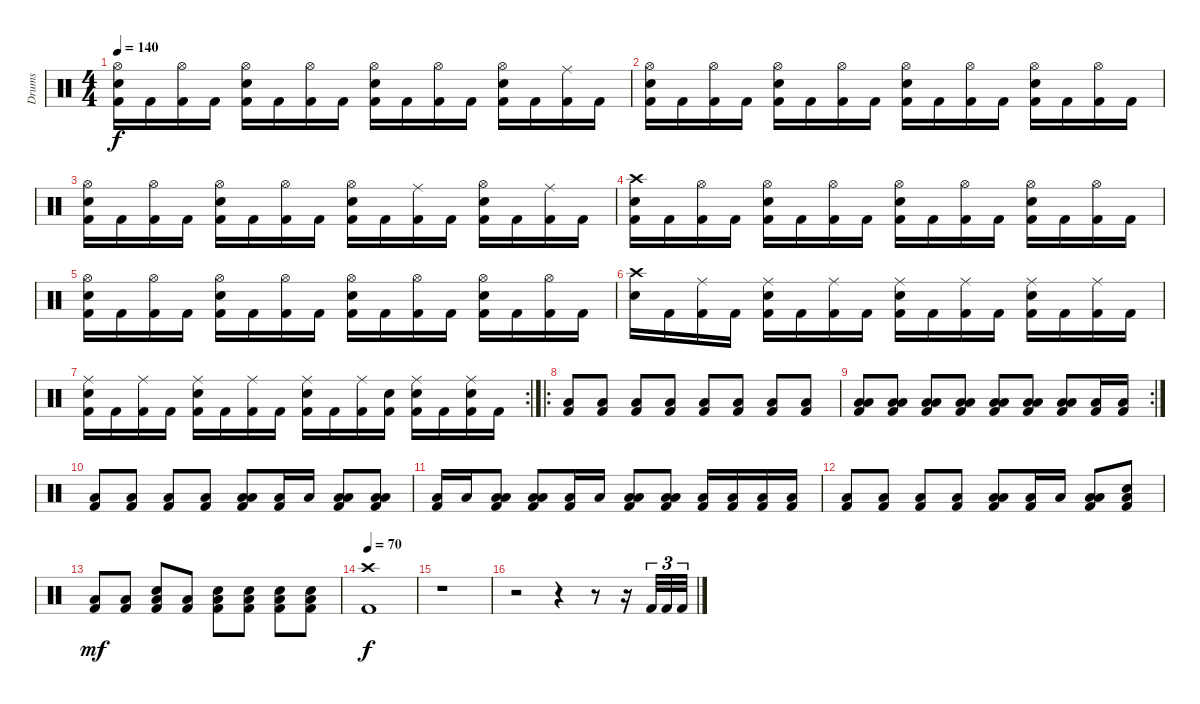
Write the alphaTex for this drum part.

\track ("Drums" "Drums") {instrument percussion}
\staff {score}
\articulation defaults
\ts (4 4)
\tempo 140
\clef neutral
\ks c
("Hi-Hat (open)" "Snare (hit) 2" "Kick (hit) 2").16{dy f} "Kick (hit) 2".16 ("Hi-Hat (open)" "Kick (hit) 2").16 "Kick (hit) 2".16 ("Hi-Hat (open)" "Snare (hit) 2" "Kick (hit) 2").16 "Kick (hit) 2".16 ("Hi-Hat (open)" "Kick (hit) 2").16 "Kick (hit) 2".16 ("Hi-Hat (open)" "Snare (hit) 2" "Kick (hit) 2").16 "Kick (hit) 2".16 ("Hi-Hat (open)" "Kick (hit) 2").16 "Kick (hit) 2".16 ("Hi-Hat (open)" "Snare (hit) 2" "Kick (hit) 2").16 "Kick (hit) 2".16 ("Ride (middle)" "Kick (hit) 2").16 "Kick (hit) 2".16 |
("Hi-Hat (open)" "Snare (hit) 2" "Kick (hit) 2").16 "Kick (hit) 2".16 ("Hi-Hat (open)" "Kick (hit) 2").16 "Kick (hit) 2".16 ("Hi-Hat (open)" "Snare (hit) 2" "Kick (hit) 2").16 "Kick (hit) 2".16 ("Hi-Hat (open)" "Kick (hit) 2").16 "Kick (hit) 2".16 ("Hi-Hat (open)" "Snare (hit) 2" "Kick (hit) 2").16 "Kick (hit) 2".16 ("Hi-Hat (open)" "Kick (hit) 2").16 "Kick (hit) 2".16 ("Hi-Hat (open)" "Snare (hit) 2" "Kick (hit) 2").16 "Kick (hit) 2".16 ("Hi-Hat (open)" "Kick (hit) 2").16 "Kick (hit) 2".16 |
("Hi-Hat (open)" "Snare (hit) 2" "Kick (hit) 2").16 "Kick (hit) 2".16 ("Hi-Hat (open)" "Kick (hit) 2").16 "Kick (hit) 2".16 ("Hi-Hat (open)" "Snare (hit) 2" "Kick (hit) 2").16 "Kick (hit) 2".16 ("Hi-Hat (open)" "Kick (hit) 2").16 "Kick (hit) 2".16 ("Hi-Hat (open)" "Snare (hit) 2" "Kick (hit) 2").16 "Kick (hit) 2".16 ("Ride (middle)" "Kick (hit) 2").16 "Kick (hit) 2".16 ("Hi-Hat (open)" "Snare (hit) 2" "Kick (hit) 2").16 "Kick (hit) 2".16 ("Ride (middle)" "Kick (hit) 2").16 "Kick (hit) 2".16 |
("Crash high (hit)" "Snare (hit) 2" "Kick (hit) 2").16 "Kick (hit) 2".16 ("Hi-Hat (open)" "Kick (hit) 2").16 "Kick (hit) 2".16 ("Hi-Hat (open)" "Snare (hit) 2" "Kick (hit) 2").16 "Kick (hit) 2".16 ("Hi-Hat (open)" "Kick (hit) 2").16 "Kick (hit) 2".16 ("Hi-Hat (open)" "Snare (hit) 2" "Kick (hit) 2").16 "Kick (hit) 2".16 ("Hi-Hat (open)" "Kick (hit) 2").16 "Kick (hit) 2".16 ("Hi-Hat (open)" "Snare (hit) 2" "Kick (hit) 2").16 "Kick (hit) 2".16 ("Hi-Hat (open)" "Kick (hit) 2").16 "Kick (hit) 2".16 |
("Hi-Hat (open)" "Snare (hit) 2" "Kick (hit) 2").16 "Kick (hit) 2".16 ("Hi-Hat (open)" "Kick (hit) 2").16 "Kick (hit) 2".16 ("Hi-Hat (open)" "Snare (hit) 2" "Kick (hit) 2").16 "Kick (hit) 2".16 ("Hi-Hat (open)" "Kick (hit) 2").16 "Kick (hit) 2".16 ("Hi-Hat (open)" "Snare (hit) 2" "Kick (hit) 2").16 "Kick (hit) 2".16 ("Hi-Hat (open)" "Kick (hit) 2").16 "Kick (hit) 2".16 ("Hi-Hat (open)" "Snare (hit) 2" "Kick (hit) 2").16 "Kick (hit) 2".16 ("Hi-Hat (open)" "Kick (hit) 2").16 "Kick (hit) 2".16 |
("Crash high (hit)" "Snare (hit) 2").16 "Kick (hit) 2".16 ("Ride (middle)" "Kick (hit) 2").16 "Kick (hit) 2".16 ("Ride (middle)" "Snare (hit) 2" "Kick (hit) 2").16 "Kick (hit) 2".16 ("Ride (middle)" "Kick (hit) 2").16 "Kick (hit) 2".16 ("Ride (middle)" "Snare (hit) 2" "Kick (hit) 2").16 "Kick (hit) 2".16 ("Ride (middle)" "Kick (hit) 2").16 "Kick (hit) 2".16 ("Ride (middle)" "Snare (hit) 2" "Kick (hit) 2").16 "Kick (hit) 2".16 ("Ride (middle)" "Kick (hit) 2").16 "Kick (hit) 2".16 |
\rc 2
("Ride (middle)" "Snare (hit) 2" "Kick (hit) 2").16 "Kick (hit) 2".16 ("Ride (middle)" "Kick (hit) 2").16 "Kick (hit) 2".16 ("Ride (middle)" "Snare (hit) 2" "Kick (hit) 2").16 "Kick (hit) 2".16 ("Ride (middle)" "Kick (hit) 2").16 "Kick (hit) 2".16 ("Ride (middle)" "Snare (hit) 2" "Kick (hit) 2").16 "Kick (hit) 2".16 ("Ride (middle)" "Kick (hit) 2").16 ("Snare (hit) 2" "Kick (hit) 2").16 ("Ride (middle)" "Snare (hit) 2" "Kick (hit) 2").16 "Kick (hit) 2".16 ("Ride (middle)" "Snare (hit) 2" "Kick (hit) 2").16 "Kick (hit) 2".16 |
\ro
("Low Floor Tom (hit)" "Kick (hit) 2").8 ("Low Floor Tom (hit)" "Kick (hit) 2").8 ("Low Floor Tom (hit)" "Kick (hit) 2").8 ("Low Floor Tom (hit)" "Kick (hit) 2").8 ("Low Floor Tom (hit)" "Kick (hit) 2").8 ("Low Floor Tom (hit)" "Kick (hit) 2").8 ("Low Floor Tom (hit)" "Kick (hit) 2").8 ("Low Floor Tom (hit)" "Kick (hit) 2").8 |
\rc 2
("Low Tom (hit)" "Low Floor Tom (hit)" "Kick (hit) 2").8 ("Low Tom (hit)" "Low Floor Tom (hit)" "Kick (hit) 2").8 ("Low Tom (hit)" "Low Floor Tom (hit)" "Kick (hit) 2").8 ("Low Tom (hit)" "Low Floor Tom (hit)" "Kick (hit) 2").8 ("Low Tom (hit)" "Low Floor Tom (hit)" "Kick (hit) 2").8 ("Low Tom (hit)" "Low Floor Tom (hit)" "Kick (hit) 2").8 ("Low Tom (hit)" "Low Floor Tom (hit)" "Kick (hit) 2").8 ("Low Tom (hit)" "Kick (hit) 2").16 ("Low Tom (hit)" "Kick (hit) 2").16 |
("Low Floor Tom (hit)" "Kick (hit) 2").8 ("Low Floor Tom (hit)" "Kick (hit) 2").8 ("Low Floor Tom (hit)" "Kick (hit) 2").8 ("Low Floor Tom (hit)" "Kick (hit) 2").8 ("Low Tom (hit)" "Low Floor Tom (hit)" "Kick (hit) 2").8 ("Low Tom (hit)" "Kick (hit) 2").16 "Low Tom (hit)".16 ("Low Tom (hit)" "Low Floor Tom (hit)" "Kick (hit) 2").8 ("Low Tom (hit)" "Low Floor Tom (hit)" "Kick (hit) 2").8 |
("Low Tom (hit)" "Kick (hit) 2").16 "Low Tom (hit)".16 ("Low Tom (hit)" "Low Floor Tom (hit)" "Kick (hit) 2").8 ("Low Tom (hit)" "Low Floor Tom (hit)" "Kick (hit) 2").8 ("Low Tom (hit)" "Kick (hit) 2").16 "Low Tom (hit)".16 ("Low Tom (hit)" "Low Floor Tom (hit)" "Kick (hit) 2").8 ("Low Tom (hit)" "Low Floor Tom (hit)" "Kick (hit) 2").8 ("Low Tom (hit)" "Kick (hit) 2").16 ("Low Tom (hit)" "Kick (hit) 2").16 ("Low Tom (hit)" "Kick (hit) 2").16 ("Low Tom (hit)" "Kick (hit) 2").16 |
("Low Floor Tom (hit)" "Kick (hit) 2").8 ("Low Floor Tom (hit)" "Kick (hit) 2").8 ("Low Floor Tom (hit)" "Kick (hit) 2").8 ("Low Floor Tom (hit)" "Kick (hit) 2").8 ("Low Tom (hit)" "Low Floor Tom (hit)" "Kick (hit) 2").8 ("Low Tom (hit)" "Kick (hit) 2").16 "Low Tom (hit)".16 ("Low Tom (hit)" "Low Floor Tom (hit)" "Kick (hit) 2").8 ("Snare (hit) 2" "Low Floor Tom (hit)" "Kick (hit) 2").8 |
("Low Floor Tom (hit)" "Kick (hit) 2").8{dy mf} ("Low Floor Tom (hit)" "Kick (hit) 2").8 ("Snare (hit) 2" "Low Floor Tom (hit)" "Kick (hit) 2").8 ("Low Floor Tom (hit)" "Kick (hit) 2").8 ("Snare (hit) 2" "Low Floor Tom (hit)" "Kick (hit) 2").8 ("Snare (hit) 2" "Low Floor Tom (hit)" "Kick (hit) 2").8 ("Snare (hit) 2" "Low Floor Tom (hit)" "Kick (hit) 2").8 ("Snare (hit) 2" "Low Floor Tom (hit)" "Kick (hit) 2").8 |
\tempo 70
("Crash high (hit)" "Kick (hit) 2").1{dy f} |
r.1 |
r.2 r.4 r.8 r.16 "Kick (hit) 2".32{tu (3 2)} "Kick (hit) 2".32{tu (3 2)} "Kick (hit) 2".32{tu (3 2)}
